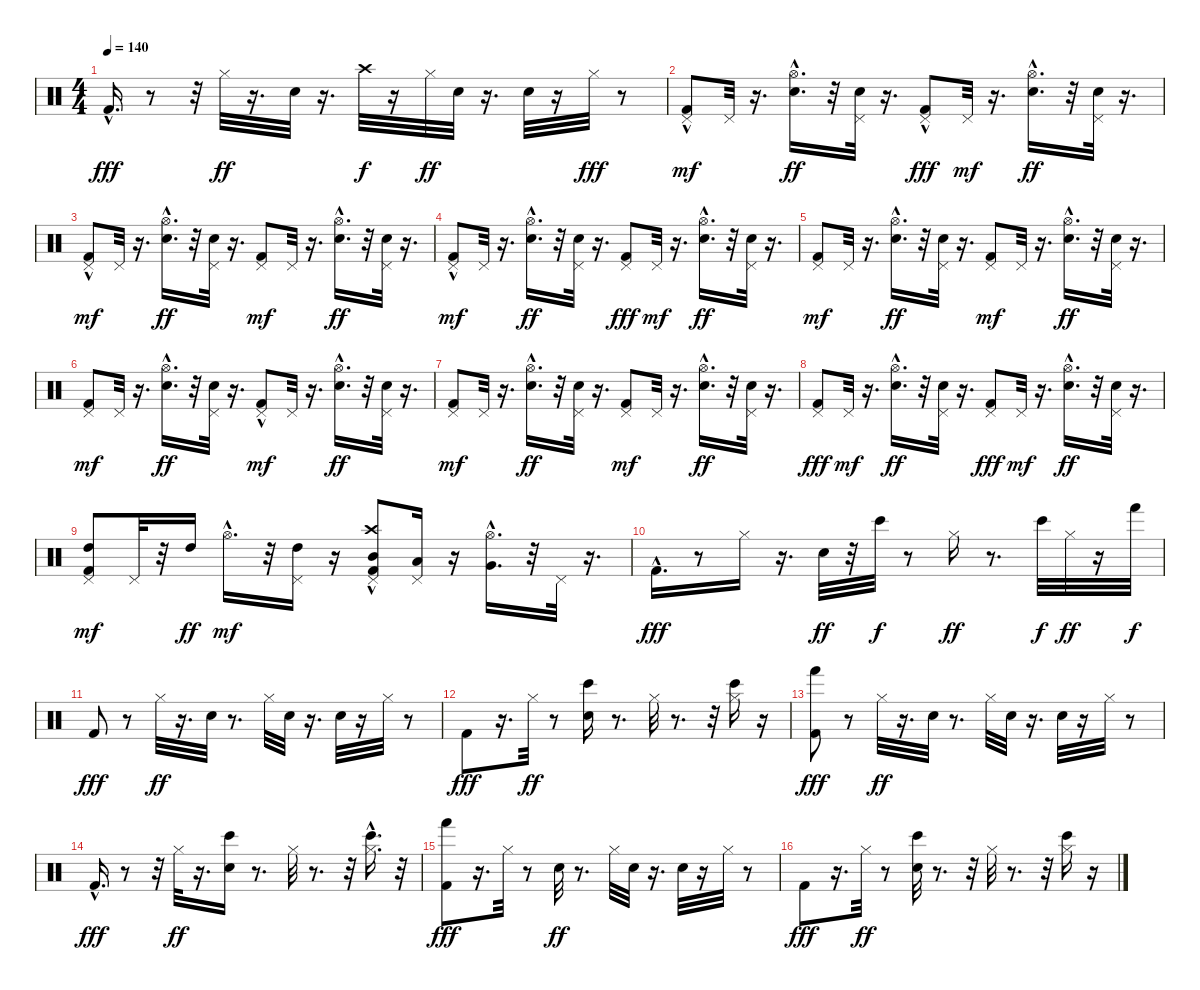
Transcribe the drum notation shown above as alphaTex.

\track "" {instrument percussion}
\staff {score}
\articulation defaults
\ts (4 4)
\tempo 140
\clef neutral
\ks c "Kick (hit) 2"{hac}.16{d dy fff}
r.8 r.32 "Hi-Hat (closed)".32{dy ff} r.16{d} "Electric Snare (hit)".32 r.16{d} "Crash high (hit)".32{dy f} r.16 "Hi-Hat (closed)".32{dy ff} "Electric Snare (hit)".32 r.16{d} "Electric Snare (hit)".32 r.16 "Hi-Hat (closed)".32{dy fff} r.8 |
("Kick (hit) 2"{hac} "Pedal Hi-Hat (hit)").8{dy mf} "Pedal Hi-Hat (hit)".32 r.16{d} ("Hi-Hat (open)"{hac} "Electric Snare (hit)").16{d dy ff} r.32 ("Pedal Hi-Hat (hit)" "Electric Snare (hit)").32 r.16{d} ("Pedal Hi-Hat (hit)" "Kick (hit) 2"{hac}).8{dy fff} "Pedal Hi-Hat (hit)".32{dy mf} r.16{d} ("Hi-Hat (open)"{hac} "Electric Snare (hit)").16{d dy ff} r.32 ("Pedal Hi-Hat (hit)" "Electric Snare (hit)").32 r.16{d} |
("Kick (hit) 2"{hac} "Pedal Hi-Hat (hit)").8{dy mf} "Pedal Hi-Hat (hit)".32 r.16{d} ("Hi-Hat (open)"{hac} "Electric Snare (hit)").16{d dy ff} r.32 ("Pedal Hi-Hat (hit)" "Electric Snare (hit)").32 r.16{d} ("Kick (hit) 2" "Pedal Hi-Hat (hit)").8{dy mf} "Pedal Hi-Hat (hit)".32 r.16{d} ("Hi-Hat (open)"{hac} "Electric Snare (hit)").16{d dy ff} r.32 ("Pedal Hi-Hat (hit)" "Electric Snare (hit)").32 r.16{d} |
("Kick (hit) 2"{hac} "Pedal Hi-Hat (hit)").8{dy mf} "Pedal Hi-Hat (hit)".32 r.16{d} ("Hi-Hat (open)"{hac} "Electric Snare (hit)").16{d dy ff} r.32 ("Pedal Hi-Hat (hit)" "Electric Snare (hit)").32 r.16{d} ("Pedal Hi-Hat (hit)" "Kick (hit) 2").8{dy fff} "Pedal Hi-Hat (hit)".32{dy mf} r.16{d} ("Hi-Hat (open)"{hac} "Electric Snare (hit)").16{d dy ff} r.32 ("Pedal Hi-Hat (hit)" "Electric Snare (hit)").32 r.16{d} |
("Kick (hit) 2" "Pedal Hi-Hat (hit)").8{dy mf} "Pedal Hi-Hat (hit)".32 r.16{d} ("Hi-Hat (open)"{hac} "Electric Snare (hit)").16{d dy ff} r.32 ("Pedal Hi-Hat (hit)" "Electric Snare (hit)").32 r.16{d} ("Kick (hit) 2" "Pedal Hi-Hat (hit)").8{dy mf} "Pedal Hi-Hat (hit)".32 r.16{d} ("Hi-Hat (open)"{hac} "Electric Snare (hit)").16{d dy ff} r.32 ("Pedal Hi-Hat (hit)" "Electric Snare (hit)").32 r.16{d} |
("Kick (hit) 2" "Pedal Hi-Hat (hit)").8{dy mf} "Pedal Hi-Hat (hit)".32 r.16{d} ("Hi-Hat (open)"{hac} "Electric Snare (hit)").16{d dy ff} r.32 ("Pedal Hi-Hat (hit)" "Electric Snare (hit)").32 r.16{d} ("Kick (hit) 2"{hac} "Pedal Hi-Hat (hit)").8{dy mf} "Pedal Hi-Hat (hit)".32 r.16{d} ("Hi-Hat (open)"{hac} "Electric Snare (hit)").16{d dy ff} r.32 ("Pedal Hi-Hat (hit)" "Electric Snare (hit)").32 r.16{d} |
("Kick (hit) 2" "Pedal Hi-Hat (hit)").8{dy mf} "Pedal Hi-Hat (hit)".32 r.16{d} ("Hi-Hat (open)"{hac} "Electric Snare (hit)").16{d dy ff} r.32 ("Pedal Hi-Hat (hit)" "Electric Snare (hit)").32 r.16{d} ("Kick (hit) 2" "Pedal Hi-Hat (hit)").8{dy mf} "Pedal Hi-Hat (hit)".32 r.16{d} ("Hi-Hat (open)"{hac} "Electric Snare (hit)").16{d dy ff} r.32 ("Pedal Hi-Hat (hit)" "Electric Snare (hit)").32 r.16{d} |
("Pedal Hi-Hat (hit)" "Kick (hit) 2").8{dy fff} "Pedal Hi-Hat (hit)".32{dy mf} r.16{d} ("Hi-Hat (open)"{hac} "Electric Snare (hit)").16{d dy ff} r.32 ("Pedal Hi-Hat (hit)" "Electric Snare (hit)").32 r.16{d} ("Pedal Hi-Hat (hit)" "Kick (hit) 2").8{dy fff} "Pedal Hi-Hat (hit)".32{dy mf} r.16{d} ("Hi-Hat (open)"{hac} "Electric Snare (hit)").16{d dy ff} r.32 ("Pedal Hi-Hat (hit)" "Electric Snare (hit)").32 r.16{d} |
("Kick (hit) 2" "High Tom (hit)" "Pedal Hi-Hat (hit)").8{dy mf} "Pedal Hi-Hat (hit)".32 r.32 "High Tom (hit)".16{dy ff} "Hi-Hat (open)"{hac}.16{d dy mf} r.32 ("High Tom (hit)" "Pedal Hi-Hat (hit)").16 r.16 ("Kick (hit) 2"{hac} "Mid Tom (hit)" "Pedal Hi-Hat (hit)" "Crash high (hit)").8 ("Low Tom (hit)" "Pedal Hi-Hat (hit)").16 r.16 ("Very Low Tom (hit)"{hac} "Hi-Hat (open)"{hac}).16{d} r.32 "Pedal Hi-Hat (hit)".32 r.16{d} |
"Kick (hit) 2"{hac}.16{d dy fff} r.8 "Hi-Hat (closed)".16 r.16{d} "Electric Snare (hit)".32{dy ff} r.32 "Bongo High (hit)".32{dy f} r.8 "Hi-Hat (closed)".16{dy ff} r.8{d} "Bongo High (hit)".32{dy f} "Hi-Hat (closed)".32{dy ff} r.16 "Hand (hit)".32{dy f} |
"Kick (hit) 2".8{dy fff} r.8 "Hi-Hat (closed)".32{dy ff} r.16{d} "Electric Snare (hit)".32 r.8{d} "Hi-Hat (closed)".32 "Electric Snare (hit)".32 r.16{d} "Electric Snare (hit)".32 r.16 "Hi-Hat (closed)".32 r.8 |
"Kick (hit) 2".8{dy fff} r.16{d} "Hi-Hat (closed)".32{dy ff} r.8 ("Bongo High (hit)" "Electric Snare (hit)").16 r.8{d} "Hi-Hat (closed)".32 r.8{d} r.32 ("Bongo High (hit)" "Hi-Hat (closed)").16 r.16 |
("Hand (hit)" "Kick (hit) 2").8{dy fff} r.8 "Hi-Hat (closed)".32{dy ff} r.16{d} "Electric Snare (hit)".32 r.8{d} "Hi-Hat (closed)".32 "Electric Snare (hit)".32 r.16{d} "Electric Snare (hit)".32 r.16 "Hi-Hat (closed)".32 r.8 |
"Kick (hit) 2"{hac}.16{d dy fff} r.8 r.32 "Hi-Hat (closed)".32{dy ff} r.16{d} ("Bongo High (hit)" "Electric Snare (hit)").16 r.8{d} "Hi-Hat (closed)".32 r.8{d} r.32 ("Bongo High (hit)"{hac} "Hi-Hat (closed)").16{d} r.32 |
("Kick (hit) 2" "Hand (hit)").8{dy fff} r.16{d} "Hi-Hat (closed)".32 r.8 "Electric Snare (hit)".32{dy ff} r.8{d} "Hi-Hat (closed)".32 "Electric Snare (hit)".32 r.16{d} "Electric Snare (hit)".32 r.16 "Hi-Hat (closed)".32 r.8 |
"Kick (hit) 2".8{dy fff} r.16{d} "Hi-Hat (closed)".32{dy ff} r.8 ("Bongo High (hit)" "Electric Snare (hit)").32 r.8{d} r.32 "Hi-Hat (closed)".32 r.8{d} r.32 ("Bongo High (hit)" "Hi-Hat (closed)").16 r.16
